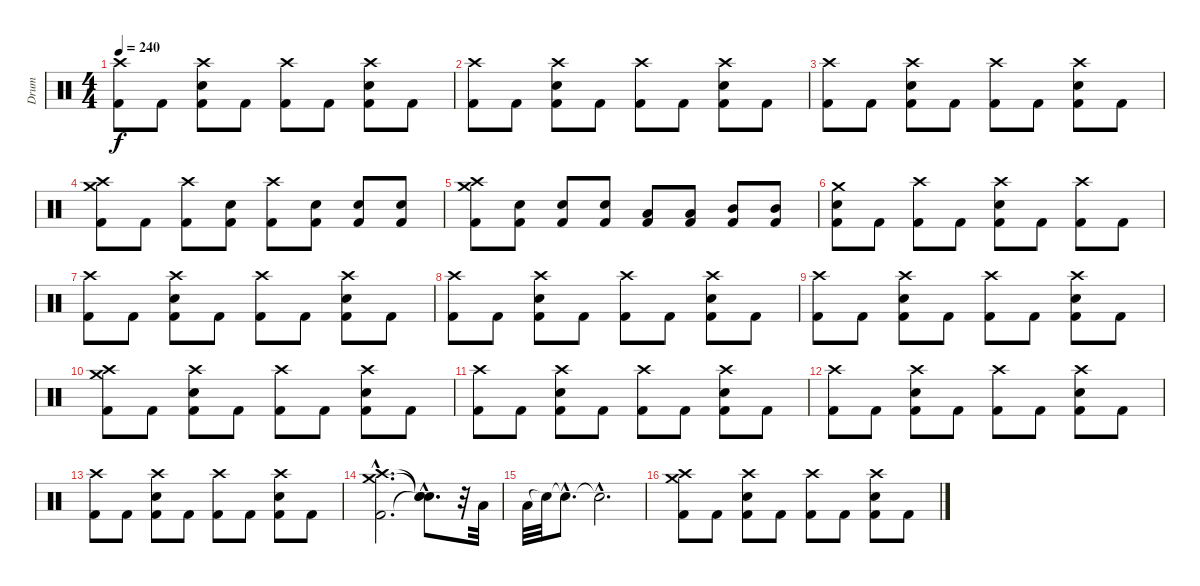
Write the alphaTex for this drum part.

\track ("Drum" "Drum") {instrument percussion}
\staff {score}
\articulation defaults
\ts (4 4)
\tempo 240
\clef neutral
\ks c
("Crash high (hit)" "Kick (hit) 2").8{dy f} "Kick (hit) 2".8 ("Crash high (hit)" "Kick (hit) 2" "Electric Snare (hit)").8 "Kick (hit) 2".8 ("Crash high (hit)" "Kick (hit) 2").8 "Kick (hit) 2".8 ("Crash high (hit)" "Kick (hit) 2" "Electric Snare (hit)").8 "Kick (hit) 2".8 |
("Crash high (hit)" "Kick (hit) 2").8 "Kick (hit) 2".8 ("Crash high (hit)" "Kick (hit) 2" "Electric Snare (hit)").8 "Kick (hit) 2".8 ("Crash high (hit)" "Kick (hit) 2").8 "Kick (hit) 2".8 ("Crash high (hit)" "Kick (hit) 2" "Electric Snare (hit)").8 "Kick (hit) 2".8 |
("Crash high (hit)" "Kick (hit) 2").8 "Kick (hit) 2".8 ("Crash high (hit)" "Kick (hit) 2" "Electric Snare (hit)").8 "Kick (hit) 2".8 ("Crash high (hit)" "Kick (hit) 2").8 "Kick (hit) 2".8 ("Crash high (hit)" "Kick (hit) 2" "Electric Snare (hit)").8 "Kick (hit) 2".8 |
("Crash high (hit)" "Kick (hit) 2" "Crash medium (hit)").8 "Kick (hit) 2".8 ("Crash high (hit)" "Kick (hit) 2").8 ("Kick (hit) 2" "Electric Snare (hit)").8 ("Crash high (hit)" "Kick (hit) 2").8 ("Kick (hit) 2" "Electric Snare (hit)").8 ("Kick (hit) 2" "Electric Snare (hit)").8 ("Kick (hit) 2" "Electric Snare (hit)").8 |
("Crash high (hit)" "Kick (hit) 2" "Crash medium (hit)").8 ("Kick (hit) 2" "Electric Snare (hit)").8 ("Kick (hit) 2" "Electric Snare (hit)").8 ("Kick (hit) 2" "Electric Snare (hit)").8 ("Kick (hit) 2" "Low Tom (hit)").8 ("Kick (hit) 2" "Low Tom (hit)").8 ("Kick (hit) 2" "Mid Tom (hit)").8 ("Kick (hit) 2" "Mid Tom (hit)").8 |
("Kick (hit) 2" "Crash medium (hit)" "Electric Snare (hit)").8 "Kick (hit) 2".8 ("Crash high (hit)" "Kick (hit) 2").8 "Kick (hit) 2".8 ("Crash high (hit)" "Kick (hit) 2" "Electric Snare (hit)").8 "Kick (hit) 2".8 ("Crash high (hit)" "Kick (hit) 2").8 "Kick (hit) 2".8 |
("Crash high (hit)" "Kick (hit) 2").8 "Kick (hit) 2".8 ("Crash high (hit)" "Kick (hit) 2" "Electric Snare (hit)").8 "Kick (hit) 2".8 ("Crash high (hit)" "Kick (hit) 2").8 "Kick (hit) 2".8 ("Crash high (hit)" "Kick (hit) 2" "Electric Snare (hit)").8 "Kick (hit) 2".8 |
("Crash high (hit)" "Kick (hit) 2").8 "Kick (hit) 2".8 ("Crash high (hit)" "Kick (hit) 2" "Electric Snare (hit)").8 "Kick (hit) 2".8 ("Crash high (hit)" "Kick (hit) 2").8 "Kick (hit) 2".8 ("Crash high (hit)" "Kick (hit) 2" "Electric Snare (hit)").8 "Kick (hit) 2".8 |
("Crash high (hit)" "Kick (hit) 2").8 "Kick (hit) 2".8 ("Crash high (hit)" "Kick (hit) 2" "Electric Snare (hit)").8 "Kick (hit) 2".8 ("Crash high (hit)" "Kick (hit) 2").8 "Kick (hit) 2".8 ("Crash high (hit)" "Kick (hit) 2" "Electric Snare (hit)").8 "Kick (hit) 2".8 |
("Crash high (hit)" "Kick (hit) 2" "Crash medium (hit)").8 "Kick (hit) 2".8 ("Crash high (hit)" "Kick (hit) 2" "Electric Snare (hit)").8 "Kick (hit) 2".8 ("Crash high (hit)" "Kick (hit) 2").8 "Kick (hit) 2".8 ("Crash high (hit)" "Kick (hit) 2" "Electric Snare (hit)").8 "Kick (hit) 2".8 |
("Crash high (hit)" "Kick (hit) 2").8 "Kick (hit) 2".8 ("Crash high (hit)" "Kick (hit) 2" "Electric Snare (hit)").8 "Kick (hit) 2".8 ("Crash high (hit)" "Kick (hit) 2").8 "Kick (hit) 2".8 ("Crash high (hit)" "Kick (hit) 2" "Electric Snare (hit)").8 "Kick (hit) 2".8 |
("Crash high (hit)" "Kick (hit) 2").8 "Kick (hit) 2".8 ("Crash high (hit)" "Kick (hit) 2" "Electric Snare (hit)").8 "Kick (hit) 2".8 ("Crash high (hit)" "Kick (hit) 2").8 "Kick (hit) 2".8 ("Crash high (hit)" "Kick (hit) 2" "Electric Snare (hit)").8 "Kick (hit) 2".8 |
("Crash high (hit)" "Kick (hit) 2").8 "Kick (hit) 2".8 ("Crash high (hit)" "Kick (hit) 2" "Electric Snare (hit)").8 "Kick (hit) 2".8 ("Crash high (hit)" "Kick (hit) 2").8 "Kick (hit) 2".8 ("Crash high (hit)" "Kick (hit) 2" "Electric Snare (hit)").8 "Kick (hit) 2".8 |
("Crash high (hit)"{hac} "Kick (hit) 2"{hac} "Crash medium (hit)"{hac}).2{d} ("Snare (hit)"{hac t} "Snare (hit)"{hac t} "Snare (hit)"{hac t}).8{d} r.32 "Low Floor Tom (hit)".32 |
"Low Floor Tom (hit)".32 "Snare (hit)"{t}.32 "Snare (hit)"{hac t}.8{d} "Snare (hit)"{hac t}.2{d} |
("Crash high (hit)" "Kick (hit) 2" "Crash medium (hit)").8 "Kick (hit) 2".8 ("Crash high (hit)" "Kick (hit) 2" "Electric Snare (hit)").8 "Kick (hit) 2".8 ("Crash high (hit)" "Kick (hit) 2").8 "Kick (hit) 2".8 ("Crash high (hit)" "Kick (hit) 2" "Electric Snare (hit)").8 "Kick (hit) 2".8
